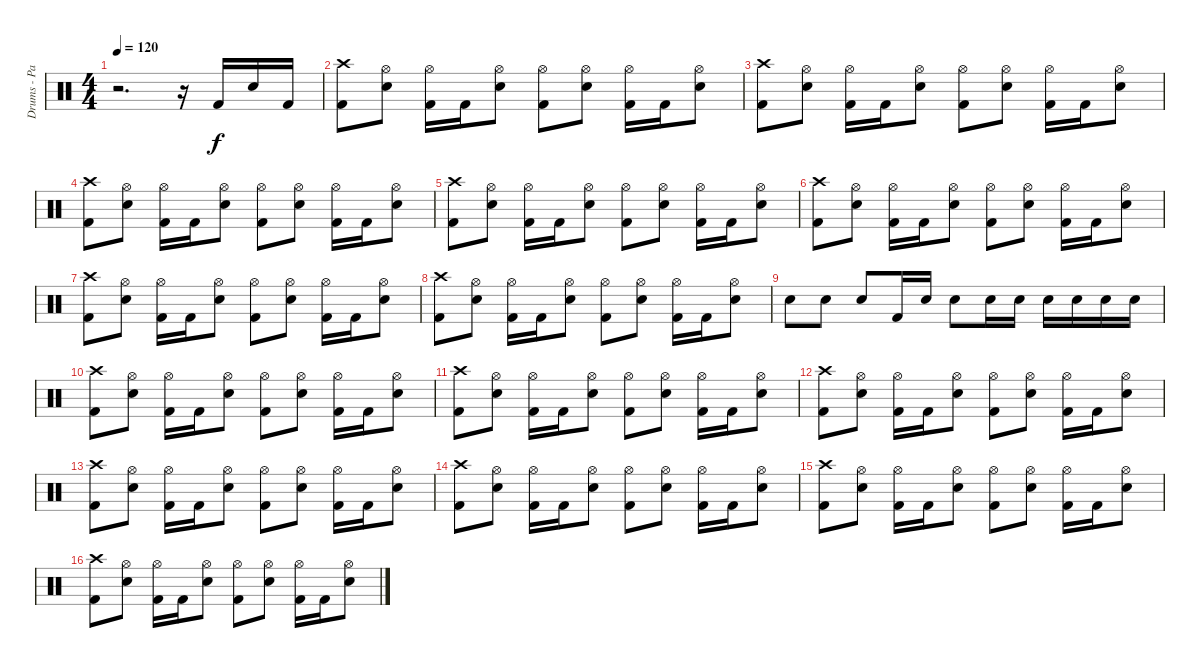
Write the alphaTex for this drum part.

\track ("Drums - Pat Thetic" "Drums - Pa") {instrument percussion}
\staff {score}
\articulation defaults
\ts (4 4)
\tempo 120
\clef neutral
\ks c
r.2{d dy f} r.16 "Kick (hit) 2".16 "Electric Snare (hit)".16 "Kick (hit) 2".16 |
("Crash high (hit)" "Kick (hit) 2").8 ("Hi-Hat (open)" "Electric Snare (hit)").8 ("Hi-Hat (open)" "Kick (hit) 2").16 "Kick (hit) 2".16 ("Hi-Hat (open)" "Electric Snare (hit)").8 ("Hi-Hat (open)" "Kick (hit) 2").8 ("Hi-Hat (open)" "Electric Snare (hit)").8 ("Hi-Hat (open)" "Kick (hit) 2").16 "Kick (hit) 2".16 ("Hi-Hat (open)" "Electric Snare (hit)").8 |
("Crash high (hit)" "Kick (hit) 2").8 ("Hi-Hat (open)" "Electric Snare (hit)").8 ("Hi-Hat (open)" "Kick (hit) 2").16 "Kick (hit) 2".16 ("Hi-Hat (open)" "Electric Snare (hit)").8 ("Hi-Hat (open)" "Kick (hit) 2").8 ("Hi-Hat (open)" "Electric Snare (hit)").8 ("Hi-Hat (open)" "Kick (hit) 2").16 "Kick (hit) 2".16 ("Hi-Hat (open)" "Electric Snare (hit)").8 |
("Crash high (hit)" "Kick (hit) 2").8 ("Hi-Hat (open)" "Electric Snare (hit)").8 ("Hi-Hat (open)" "Kick (hit) 2").16 "Kick (hit) 2".16 ("Hi-Hat (open)" "Electric Snare (hit)").8 ("Hi-Hat (open)" "Kick (hit) 2").8 ("Hi-Hat (open)" "Electric Snare (hit)").8 ("Hi-Hat (open)" "Kick (hit) 2").16 "Kick (hit) 2".16 ("Hi-Hat (open)" "Electric Snare (hit)").8 |
("Crash high (hit)" "Kick (hit) 2").8 ("Hi-Hat (open)" "Electric Snare (hit)").8 ("Hi-Hat (open)" "Kick (hit) 2").16 "Kick (hit) 2".16 ("Hi-Hat (open)" "Electric Snare (hit)").8 ("Hi-Hat (open)" "Kick (hit) 2").8 ("Hi-Hat (open)" "Electric Snare (hit)").8 ("Hi-Hat (open)" "Kick (hit) 2").16 "Kick (hit) 2".16 ("Hi-Hat (open)" "Electric Snare (hit)").8 |
("Crash high (hit)" "Kick (hit) 2").8 ("Hi-Hat (open)" "Electric Snare (hit)").8 ("Hi-Hat (open)" "Kick (hit) 2").16 "Kick (hit) 2".16 ("Hi-Hat (open)" "Electric Snare (hit)").8 ("Hi-Hat (open)" "Kick (hit) 2").8 ("Hi-Hat (open)" "Electric Snare (hit)").8 ("Hi-Hat (open)" "Kick (hit) 2").16 "Kick (hit) 2".16 ("Hi-Hat (open)" "Electric Snare (hit)").8 |
("Crash high (hit)" "Kick (hit) 2").8 ("Hi-Hat (open)" "Electric Snare (hit)").8 ("Hi-Hat (open)" "Kick (hit) 2").16 "Kick (hit) 2".16 ("Hi-Hat (open)" "Electric Snare (hit)").8 ("Hi-Hat (open)" "Kick (hit) 2").8 ("Hi-Hat (open)" "Electric Snare (hit)").8 ("Hi-Hat (open)" "Kick (hit) 2").16 "Kick (hit) 2".16 ("Hi-Hat (open)" "Electric Snare (hit)").8 |
("Crash high (hit)" "Kick (hit) 2").8 ("Hi-Hat (open)" "Electric Snare (hit)").8 ("Hi-Hat (open)" "Kick (hit) 2").16 "Kick (hit) 2".16 ("Hi-Hat (open)" "Electric Snare (hit)").8 ("Hi-Hat (open)" "Kick (hit) 2").8 ("Hi-Hat (open)" "Electric Snare (hit)").8 ("Hi-Hat (open)" "Kick (hit) 2").16 "Kick (hit) 2".16 ("Hi-Hat (open)" "Electric Snare (hit)").8 |
"Electric Snare (hit)".8 "Electric Snare (hit)".8 "Electric Snare (hit)".8 "Kick (hit) 2".16 "Electric Snare (hit)".16 "Electric Snare (hit)".8 "Electric Snare (hit)".16 "Electric Snare (hit)".16 "Electric Snare (hit)".16 "Electric Snare (hit)".16 "Electric Snare (hit)".16 "Electric Snare (hit)".16 |
("Crash high (hit)" "Kick (hit) 2").8 ("Hi-Hat (open)" "Electric Snare (hit)").8 ("Hi-Hat (open)" "Kick (hit) 2").16 "Kick (hit) 2".16 ("Hi-Hat (open)" "Electric Snare (hit)").8 ("Hi-Hat (open)" "Kick (hit) 2").8 ("Hi-Hat (open)" "Electric Snare (hit)").8 ("Hi-Hat (open)" "Kick (hit) 2").16 "Kick (hit) 2".16 ("Hi-Hat (open)" "Electric Snare (hit)").8 |
("Crash high (hit)" "Kick (hit) 2").8 ("Hi-Hat (open)" "Electric Snare (hit)").8 ("Hi-Hat (open)" "Kick (hit) 2").16 "Kick (hit) 2".16 ("Hi-Hat (open)" "Electric Snare (hit)").8 ("Hi-Hat (open)" "Kick (hit) 2").8 ("Hi-Hat (open)" "Electric Snare (hit)").8 ("Hi-Hat (open)" "Kick (hit) 2").16 "Kick (hit) 2".16 ("Hi-Hat (open)" "Electric Snare (hit)").8 |
("Crash high (hit)" "Kick (hit) 2").8 ("Hi-Hat (open)" "Electric Snare (hit)").8 ("Hi-Hat (open)" "Kick (hit) 2").16 "Kick (hit) 2".16 ("Hi-Hat (open)" "Electric Snare (hit)").8 ("Hi-Hat (open)" "Kick (hit) 2").8 ("Hi-Hat (open)" "Electric Snare (hit)").8 ("Hi-Hat (open)" "Kick (hit) 2").16 "Kick (hit) 2".16 ("Hi-Hat (open)" "Electric Snare (hit)").8 |
("Crash high (hit)" "Kick (hit) 2").8 ("Hi-Hat (open)" "Electric Snare (hit)").8 ("Hi-Hat (open)" "Kick (hit) 2").16 "Kick (hit) 2".16 ("Hi-Hat (open)" "Electric Snare (hit)").8 ("Hi-Hat (open)" "Kick (hit) 2").8 ("Hi-Hat (open)" "Electric Snare (hit)").8 ("Hi-Hat (open)" "Kick (hit) 2").16 "Kick (hit) 2".16 ("Hi-Hat (open)" "Electric Snare (hit)").8 |
("Crash high (hit)" "Kick (hit) 2").8 ("Hi-Hat (open)" "Electric Snare (hit)").8 ("Hi-Hat (open)" "Kick (hit) 2").16 "Kick (hit) 2".16 ("Hi-Hat (open)" "Electric Snare (hit)").8 ("Hi-Hat (open)" "Kick (hit) 2").8 ("Hi-Hat (open)" "Electric Snare (hit)").8 ("Hi-Hat (open)" "Kick (hit) 2").16 "Kick (hit) 2".16 ("Hi-Hat (open)" "Electric Snare (hit)").8 |
("Crash high (hit)" "Kick (hit) 2").8 ("Hi-Hat (open)" "Electric Snare (hit)").8 ("Hi-Hat (open)" "Kick (hit) 2").16 "Kick (hit) 2".16 ("Hi-Hat (open)" "Electric Snare (hit)").8 ("Hi-Hat (open)" "Kick (hit) 2").8 ("Hi-Hat (open)" "Electric Snare (hit)").8 ("Hi-Hat (open)" "Kick (hit) 2").16 "Kick (hit) 2".16 ("Hi-Hat (open)" "Electric Snare (hit)").8 |
("Crash high (hit)" "Kick (hit) 2").8 ("Hi-Hat (open)" "Electric Snare (hit)").8 ("Hi-Hat (open)" "Kick (hit) 2").16 "Kick (hit) 2".16 ("Hi-Hat (open)" "Electric Snare (hit)").8 ("Hi-Hat (open)" "Kick (hit) 2").8 ("Hi-Hat (open)" "Electric Snare (hit)").8 ("Hi-Hat (open)" "Kick (hit) 2").16 "Kick (hit) 2".16 ("Hi-Hat (open)" "Electric Snare (hit)").8
